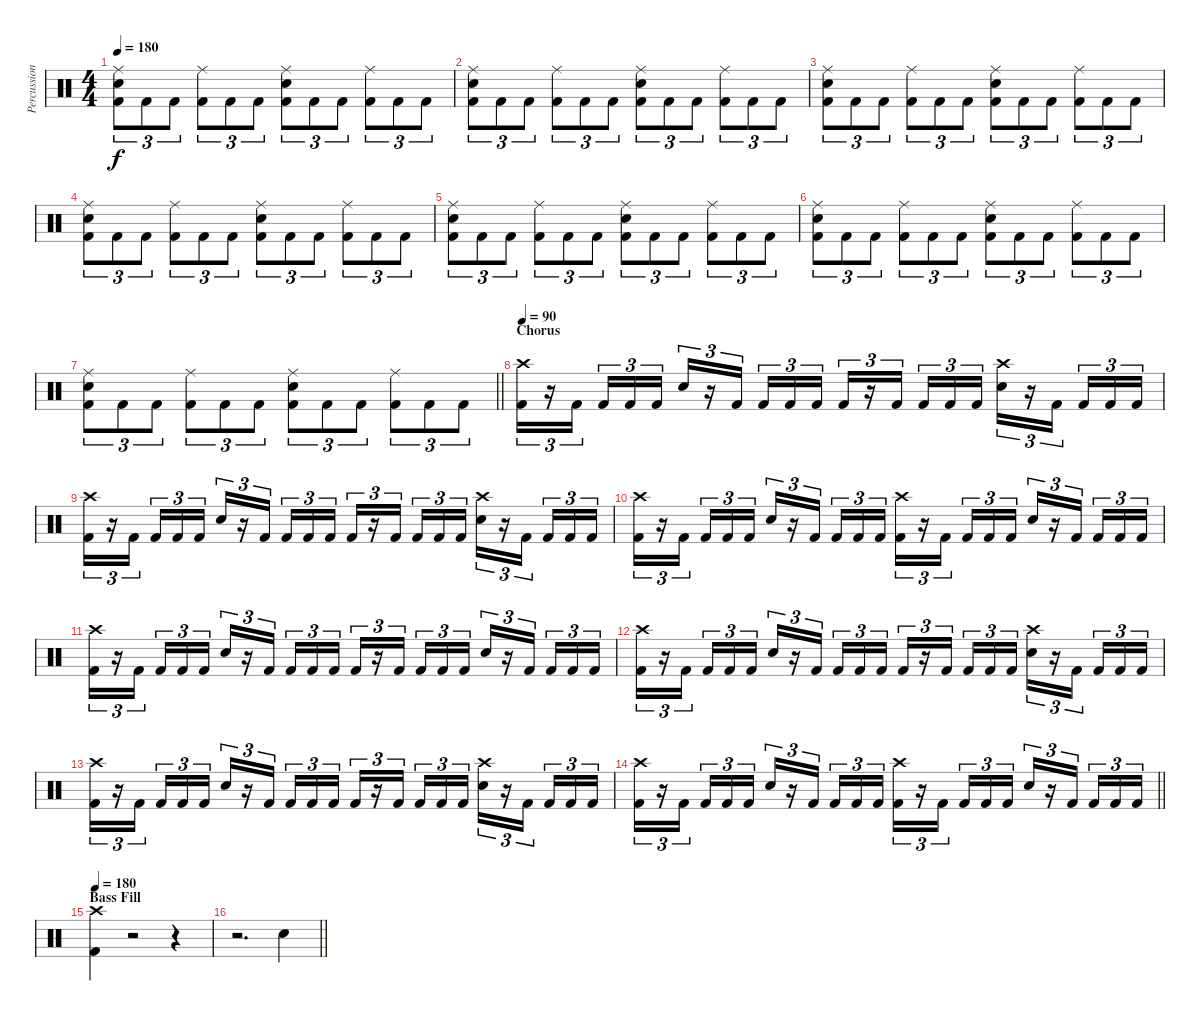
\track ("Percussion" "Percussion") {instrument percussion}
\staff {score}
\articulation defaults
\ts (4 4)
\tempo 180
\clef neutral
\ks c
("Ride (middle)" "Snare (hit) 2" "Kick (hit) 2").8{tu (3 2) dy f} "Kick (hit) 2".8{tu (3 2)} "Kick (hit) 2".8{tu (3 2)} ("Ride (middle)" "Kick (hit) 2").8{tu (3 2)} "Kick (hit) 2".8{tu (3 2)} "Kick (hit) 2".8{tu (3 2)} ("Ride (middle)" "Snare (hit) 2" "Kick (hit) 2").8{tu (3 2)} "Kick (hit) 2".8{tu (3 2)} "Kick (hit) 2".8{tu (3 2)} ("Ride (middle)" "Kick (hit) 2").8{tu (3 2)} "Kick (hit) 2".8{tu (3 2)} "Kick (hit) 2".8{tu (3 2)} |
("Ride (middle)" "Snare (hit) 2" "Kick (hit) 2").8{tu (3 2)} "Kick (hit) 2".8{tu (3 2)} "Kick (hit) 2".8{tu (3 2)} ("Ride (middle)" "Kick (hit) 2").8{tu (3 2)} "Kick (hit) 2".8{tu (3 2)} "Kick (hit) 2".8{tu (3 2)} ("Ride (middle)" "Snare (hit) 2" "Kick (hit) 2").8{tu (3 2)} "Kick (hit) 2".8{tu (3 2)} "Kick (hit) 2".8{tu (3 2)} ("Ride (middle)" "Kick (hit) 2").8{tu (3 2)} "Kick (hit) 2".8{tu (3 2)} "Kick (hit) 2".8{tu (3 2)} |
("Ride (middle)" "Snare (hit) 2" "Kick (hit) 2").8{tu (3 2)} "Kick (hit) 2".8{tu (3 2)} "Kick (hit) 2".8{tu (3 2)} ("Ride (middle)" "Kick (hit) 2").8{tu (3 2)} "Kick (hit) 2".8{tu (3 2)} "Kick (hit) 2".8{tu (3 2)} ("Ride (middle)" "Snare (hit) 2" "Kick (hit) 2").8{tu (3 2)} "Kick (hit) 2".8{tu (3 2)} "Kick (hit) 2".8{tu (3 2)} ("Ride (middle)" "Kick (hit) 2").8{tu (3 2)} "Kick (hit) 2".8{tu (3 2)} "Kick (hit) 2".8{tu (3 2)} |
("Ride (middle)" "Snare (hit) 2" "Kick (hit) 2").8{tu (3 2)} "Kick (hit) 2".8{tu (3 2)} "Kick (hit) 2".8{tu (3 2)} ("Ride (middle)" "Kick (hit) 2").8{tu (3 2)} "Kick (hit) 2".8{tu (3 2)} "Kick (hit) 2".8{tu (3 2)} ("Ride (middle)" "Snare (hit) 2" "Kick (hit) 2").8{tu (3 2)} "Kick (hit) 2".8{tu (3 2)} "Kick (hit) 2".8{tu (3 2)} ("Ride (middle)" "Kick (hit) 2").8{tu (3 2)} "Kick (hit) 2".8{tu (3 2)} "Kick (hit) 2".8{tu (3 2)} |
("Ride (middle)" "Snare (hit) 2" "Kick (hit) 2").8{tu (3 2)} "Kick (hit) 2".8{tu (3 2)} "Kick (hit) 2".8{tu (3 2)} ("Ride (middle)" "Kick (hit) 2").8{tu (3 2)} "Kick (hit) 2".8{tu (3 2)} "Kick (hit) 2".8{tu (3 2)} ("Ride (middle)" "Snare (hit) 2" "Kick (hit) 2").8{tu (3 2)} "Kick (hit) 2".8{tu (3 2)} "Kick (hit) 2".8{tu (3 2)} ("Ride (middle)" "Kick (hit) 2").8{tu (3 2)} "Kick (hit) 2".8{tu (3 2)} "Kick (hit) 2".8{tu (3 2)} |
("Ride (middle)" "Snare (hit) 2" "Kick (hit) 2").8{tu (3 2)} "Kick (hit) 2".8{tu (3 2)} "Kick (hit) 2".8{tu (3 2)} ("Ride (middle)" "Kick (hit) 2").8{tu (3 2)} "Kick (hit) 2".8{tu (3 2)} "Kick (hit) 2".8{tu (3 2)} ("Ride (middle)" "Snare (hit) 2" "Kick (hit) 2").8{tu (3 2)} "Kick (hit) 2".8{tu (3 2)} "Kick (hit) 2".8{tu (3 2)} ("Ride (middle)" "Kick (hit) 2").8{tu (3 2)} "Kick (hit) 2".8{tu (3 2)} "Kick (hit) 2".8{tu (3 2)} |
\barLineRight lightlight
("Ride (middle)" "Snare (hit) 2" "Kick (hit) 2").8{tu (3 2)} "Kick (hit) 2".8{tu (3 2)} "Kick (hit) 2".8{tu (3 2)} ("Ride (middle)" "Kick (hit) 2").8{tu (3 2)} "Kick (hit) 2".8{tu (3 2)} "Kick (hit) 2".8{tu (3 2)} ("Ride (middle)" "Snare (hit) 2" "Kick (hit) 2").8{tu (3 2)} "Kick (hit) 2".8{tu (3 2)} "Kick (hit) 2".8{tu (3 2)} ("Ride (middle)" "Kick (hit) 2").8{tu (3 2)} "Kick (hit) 2".8{tu (3 2)} "Kick (hit) 2".8{tu (3 2)} |
\section ("" "Chorus")
\tempo 90
("Crash high (hit)" "Kick (hit) 2").16{tu (3 2)} r.16{tu (3 2)} "Kick (hit) 2".16{tu (3 2) beam splitsecondary} "Kick (hit) 2".16{tu (3 2)} "Kick (hit) 2".16{tu (3 2)} "Kick (hit) 2".16{tu (3 2)} "Snare (hit) 2".16{tu (3 2)} r.16{tu (3 2)} "Kick (hit) 2".16{tu (3 2) beam splitsecondary} "Kick (hit) 2".16{tu (3 2)} "Kick (hit) 2".16{tu (3 2)} "Kick (hit) 2".16{tu (3 2)} "Kick (hit) 2".16{tu (3 2)} r.16{tu (3 2)} "Kick (hit) 2".16{tu (3 2) beam splitsecondary} "Kick (hit) 2".16{tu (3 2)} "Kick (hit) 2".16{tu (3 2)} "Kick (hit) 2".16{tu (3 2)} ("Crash high (hit)" "Snare (hit) 2").16{tu (3 2)} r.16{tu (3 2)} "Kick (hit) 2".16{tu (3 2) beam splitsecondary} "Kick (hit) 2".16{tu (3 2)} "Kick (hit) 2".16{tu (3 2)} "Kick (hit) 2".16{tu (3 2)} |
("Crash high (hit)" "Kick (hit) 2").16{tu (3 2)} r.16{tu (3 2)} "Kick (hit) 2".16{tu (3 2) beam splitsecondary} "Kick (hit) 2".16{tu (3 2)} "Kick (hit) 2".16{tu (3 2)} "Kick (hit) 2".16{tu (3 2)} "Snare (hit) 2".16{tu (3 2)} r.16{tu (3 2)} "Kick (hit) 2".16{tu (3 2) beam splitsecondary} "Kick (hit) 2".16{tu (3 2)} "Kick (hit) 2".16{tu (3 2)} "Kick (hit) 2".16{tu (3 2)} "Kick (hit) 2".16{tu (3 2)} r.16{tu (3 2)} "Kick (hit) 2".16{tu (3 2) beam splitsecondary} "Kick (hit) 2".16{tu (3 2)} "Kick (hit) 2".16{tu (3 2)} "Kick (hit) 2".16{tu (3 2)} ("Crash high (hit)" "Snare (hit) 2").16{tu (3 2)} r.16{tu (3 2)} "Kick (hit) 2".16{tu (3 2) beam splitsecondary} "Kick (hit) 2".16{tu (3 2)} "Kick (hit) 2".16{tu (3 2)} "Kick (hit) 2".16{tu (3 2)} |
("Crash high (hit)" "Kick (hit) 2").16{tu (3 2)} r.16{tu (3 2)} "Kick (hit) 2".16{tu (3 2) beam splitsecondary} "Kick (hit) 2".16{tu (3 2)} "Kick (hit) 2".16{tu (3 2)} "Kick (hit) 2".16{tu (3 2)} "Snare (hit) 2".16{tu (3 2)} r.16{tu (3 2)} "Kick (hit) 2".16{tu (3 2) beam splitsecondary} "Kick (hit) 2".16{tu (3 2)} "Kick (hit) 2".16{tu (3 2)} "Kick (hit) 2".16{tu (3 2)} ("Crash high (hit)" "Kick (hit) 2").16{tu (3 2)} r.16{tu (3 2)} "Kick (hit) 2".16{tu (3 2) beam splitsecondary} "Kick (hit) 2".16{tu (3 2)} "Kick (hit) 2".16{tu (3 2)} "Kick (hit) 2".16{tu (3 2)} "Snare (hit) 2".16{tu (3 2)} r.16{tu (3 2)} "Kick (hit) 2".16{tu (3 2) beam splitsecondary} "Kick (hit) 2".16{tu (3 2)} "Kick (hit) 2".16{tu (3 2)} "Kick (hit) 2".16{tu (3 2)} |
("Crash high (hit)" "Kick (hit) 2").16{tu (3 2)} r.16{tu (3 2)} "Kick (hit) 2".16{tu (3 2) beam splitsecondary} "Kick (hit) 2".16{tu (3 2)} "Kick (hit) 2".16{tu (3 2)} "Kick (hit) 2".16{tu (3 2)} "Snare (hit) 2".16{tu (3 2)} r.16{tu (3 2)} "Kick (hit) 2".16{tu (3 2) beam splitsecondary} "Kick (hit) 2".16{tu (3 2)} "Kick (hit) 2".16{tu (3 2)} "Kick (hit) 2".16{tu (3 2)} "Kick (hit) 2".16{tu (3 2)} r.16{tu (3 2)} "Kick (hit) 2".16{tu (3 2) beam splitsecondary} "Kick (hit) 2".16{tu (3 2)} "Kick (hit) 2".16{tu (3 2)} "Kick (hit) 2".16{tu (3 2)} "Snare (hit) 2".16{tu (3 2)} r.16{tu (3 2)} "Kick (hit) 2".16{tu (3 2) beam splitsecondary} "Kick (hit) 2".16{tu (3 2)} "Kick (hit) 2".16{tu (3 2)} "Kick (hit) 2".16{tu (3 2)} |
("Crash high (hit)" "Kick (hit) 2").16{tu (3 2)} r.16{tu (3 2)} "Kick (hit) 2".16{tu (3 2) beam splitsecondary} "Kick (hit) 2".16{tu (3 2)} "Kick (hit) 2".16{tu (3 2)} "Kick (hit) 2".16{tu (3 2)} "Snare (hit) 2".16{tu (3 2)} r.16{tu (3 2)} "Kick (hit) 2".16{tu (3 2) beam splitsecondary} "Kick (hit) 2".16{tu (3 2)} "Kick (hit) 2".16{tu (3 2)} "Kick (hit) 2".16{tu (3 2)} "Kick (hit) 2".16{tu (3 2)} r.16{tu (3 2)} "Kick (hit) 2".16{tu (3 2) beam splitsecondary} "Kick (hit) 2".16{tu (3 2)} "Kick (hit) 2".16{tu (3 2)} "Kick (hit) 2".16{tu (3 2)} ("Crash high (hit)" "Snare (hit) 2").16{tu (3 2)} r.16{tu (3 2)} "Kick (hit) 2".16{tu (3 2) beam splitsecondary} "Kick (hit) 2".16{tu (3 2)} "Kick (hit) 2".16{tu (3 2)} "Kick (hit) 2".16{tu (3 2)} |
("Crash high (hit)" "Kick (hit) 2").16{tu (3 2)} r.16{tu (3 2)} "Kick (hit) 2".16{tu (3 2) beam splitsecondary} "Kick (hit) 2".16{tu (3 2)} "Kick (hit) 2".16{tu (3 2)} "Kick (hit) 2".16{tu (3 2)} "Snare (hit) 2".16{tu (3 2)} r.16{tu (3 2)} "Kick (hit) 2".16{tu (3 2) beam splitsecondary} "Kick (hit) 2".16{tu (3 2)} "Kick (hit) 2".16{tu (3 2)} "Kick (hit) 2".16{tu (3 2)} "Kick (hit) 2".16{tu (3 2)} r.16{tu (3 2)} "Kick (hit) 2".16{tu (3 2) beam splitsecondary} "Kick (hit) 2".16{tu (3 2)} "Kick (hit) 2".16{tu (3 2)} "Kick (hit) 2".16{tu (3 2)} ("Crash high (hit)" "Snare (hit) 2").16{tu (3 2)} r.16{tu (3 2)} "Kick (hit) 2".16{tu (3 2) beam splitsecondary} "Kick (hit) 2".16{tu (3 2)} "Kick (hit) 2".16{tu (3 2)} "Kick (hit) 2".16{tu (3 2)} |
\barLineRight lightlight
("Crash high (hit)" "Kick (hit) 2").16{tu (3 2)} r.16{tu (3 2)} "Kick (hit) 2".16{tu (3 2) beam splitsecondary} "Kick (hit) 2".16{tu (3 2)} "Kick (hit) 2".16{tu (3 2)} "Kick (hit) 2".16{tu (3 2)} "Snare (hit) 2".16{tu (3 2)} r.16{tu (3 2)} "Kick (hit) 2".16{tu (3 2) beam splitsecondary} "Kick (hit) 2".16{tu (3 2)} "Kick (hit) 2".16{tu (3 2)} "Kick (hit) 2".16{tu (3 2)} ("Crash high (hit)" "Kick (hit) 2").16{tu (3 2)} r.16{tu (3 2)} "Kick (hit) 2".16{tu (3 2) beam splitsecondary} "Kick (hit) 2".16{tu (3 2)} "Kick (hit) 2".16{tu (3 2)} "Kick (hit) 2".16{tu (3 2)} "Snare (hit) 2".16{tu (3 2)} r.16{tu (3 2)} "Kick (hit) 2".16{tu (3 2) beam splitsecondary} "Kick (hit) 2".16{tu (3 2)} "Kick (hit) 2".16{tu (3 2)} "Kick (hit) 2".16{tu (3 2)} |
\section ("" "Bass Fill")
\tempo 180
("Crash high (hit)" "Kick (hit) 2").4 r.2 r.4 |
\barLineRight lightlight
r.2{d} "Snare (hit) 2".4
